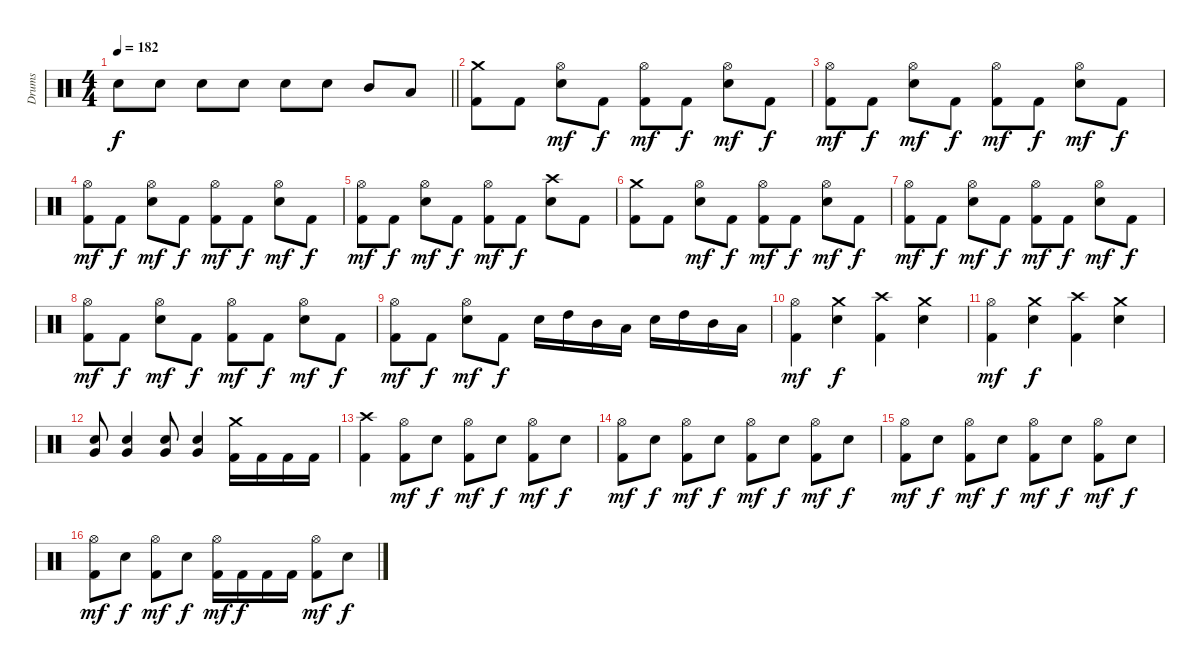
\track ("Drums" "Drums") {instrument percussion}
\staff {score}
\articulation defaults
\ts (4 4)
\tempo 182
\clef neutral
\barLineRight lightlight
\ks c "Electric Snare (hit)".8{dy f} "Electric Snare (hit)".8 "Electric Snare (hit)".8 "Electric Snare (hit)".8 "Electric Snare (hit)".8 "Electric Snare (hit)".8 "Mid Tom (hit)".8 "Low Tom (hit)".8
|
("Crash medium (hit)" "Kick (hit) 2").8{volume 14} "Kick (hit) 2".8 ("Hi-Hat (open)" "Electric Snare (hit)").8{dy mf} "Kick (hit) 2".8{dy f} ("Hi-Hat (open)" "Kick (hit) 2").8{dy mf} "Kick (hit) 2".8{dy f} ("Hi-Hat (open)" "Electric Snare (hit)").8{dy mf} "Kick (hit) 2".8{dy f} |
("Hi-Hat (open)" "Kick (hit) 2").8{dy mf} "Kick (hit) 2".8{dy f} ("Hi-Hat (open)" "Electric Snare (hit)").8{dy mf} "Kick (hit) 2".8{dy f} ("Hi-Hat (open)" "Kick (hit) 2").8{dy mf} "Kick (hit) 2".8{dy f} ("Hi-Hat (open)" "Electric Snare (hit)").8{dy mf} "Kick (hit) 2".8{dy f} |
("Hi-Hat (open)" "Kick (hit) 2").8{dy mf} "Kick (hit) 2".8{dy f} ("Hi-Hat (open)" "Electric Snare (hit)").8{dy mf} "Kick (hit) 2".8{dy f} ("Hi-Hat (open)" "Kick (hit) 2").8{dy mf} "Kick (hit) 2".8{dy f} ("Hi-Hat (open)" "Electric Snare (hit)").8{dy mf} "Kick (hit) 2".8{dy f} |
("Hi-Hat (open)" "Kick (hit) 2").8{dy mf} "Kick (hit) 2".8{dy f} ("Hi-Hat (open)" "Electric Snare (hit)").8{dy mf} "Kick (hit) 2".8{dy f} ("Hi-Hat (open)" "Kick (hit) 2").8{dy mf} "Kick (hit) 2".8{dy f} ("Crash high (hit)" "Electric Snare (hit)").8 "Kick (hit) 2".8 |
("Crash medium (hit)" "Kick (hit) 2").8 "Kick (hit) 2".8 ("Hi-Hat (open)" "Electric Snare (hit)").8{dy mf} "Kick (hit) 2".8{dy f} ("Hi-Hat (open)" "Kick (hit) 2").8{dy mf} "Kick (hit) 2".8{dy f} ("Hi-Hat (open)" "Electric Snare (hit)").8{dy mf} "Kick (hit) 2".8{dy f} |
("Hi-Hat (open)" "Kick (hit) 2").8{dy mf} "Kick (hit) 2".8{dy f} ("Hi-Hat (open)" "Electric Snare (hit)").8{dy mf} "Kick (hit) 2".8{dy f} ("Hi-Hat (open)" "Kick (hit) 2").8{dy mf} "Kick (hit) 2".8{dy f} ("Hi-Hat (open)" "Electric Snare (hit)").8{dy mf} "Kick (hit) 2".8{dy f} |
("Hi-Hat (open)" "Kick (hit) 2").8{dy mf} "Kick (hit) 2".8{dy f} ("Hi-Hat (open)" "Electric Snare (hit)").8{dy mf} "Kick (hit) 2".8{dy f} ("Hi-Hat (open)" "Kick (hit) 2").8{dy mf} "Kick (hit) 2".8{dy f} ("Hi-Hat (open)" "Electric Snare (hit)").8{dy mf} "Kick (hit) 2".8{dy f} |
("Hi-Hat (open)" "Kick (hit) 2").8{dy mf} "Kick (hit) 2".8{dy f} ("Hi-Hat (open)" "Electric Snare (hit)").8{dy mf} "Kick (hit) 2".8{dy f} "Electric Snare (hit)".16 "High Tom (hit)".16 "Mid Tom (hit)".16 "Low Tom (hit)".16 "Electric Snare (hit)".16 "High Tom (hit)".16 "Mid Tom (hit)".16 "Low Tom (hit)".16 |
("Hi-Hat (open)" "Kick (hit) 2").4{dy mf} ("Crash medium (hit)" "Electric Snare (hit)").4{dy f} ("Crash high (hit)" "Kick (hit) 2").4 ("Crash medium (hit)" "Electric Snare (hit)").4 |
("Hi-Hat (open)" "Kick (hit) 2").4{dy mf} ("Crash medium (hit)" "Electric Snare (hit)").4{dy f} ("Crash high (hit)" "Kick (hit) 2").4 ("Crash medium (hit)" "Electric Snare (hit)").4 |
("Very Low Tom (hit)" "Electric Snare (hit)").8 ("Very Low Tom (hit)" "Electric Snare (hit)").4 ("Very Low Tom (hit)" "Electric Snare (hit)").8 ("Very Low Tom (hit)" "Electric Snare (hit)").4 ("Crash medium (hit)" "Kick (hit) 2").16 "Kick (hit) 2".16 "Kick (hit) 2".16 "Kick (hit) 2".16 |
("Crash high (hit)" "Kick (hit) 2").4 ("Hi-Hat (open)" "Kick (hit) 2").8{dy mf} "Electric Snare (hit)".8{dy f} ("Hi-Hat (open)" "Kick (hit) 2").8{dy mf} "Electric Snare (hit)".8{dy f} ("Hi-Hat (open)" "Kick (hit) 2").8{dy mf} "Electric Snare (hit)".8{dy f} |
("Hi-Hat (open)" "Kick (hit) 2").8{dy mf} "Electric Snare (hit)".8{dy f} ("Hi-Hat (open)" "Kick (hit) 2").8{dy mf} "Electric Snare (hit)".8{dy f} ("Hi-Hat (open)" "Kick (hit) 2").8{dy mf} "Electric Snare (hit)".8{dy f} ("Hi-Hat (open)" "Kick (hit) 2").8{dy mf} "Electric Snare (hit)".8{dy f} |
("Hi-Hat (open)" "Kick (hit) 2").8{dy mf} "Electric Snare (hit)".8{dy f} ("Hi-Hat (open)" "Kick (hit) 2").8{dy mf} "Electric Snare (hit)".8{dy f} ("Hi-Hat (open)" "Kick (hit) 2").8{dy mf} "Electric Snare (hit)".8{dy f} ("Hi-Hat (open)" "Kick (hit) 2").8{dy mf} "Electric Snare (hit)".8{dy f} |
("Hi-Hat (open)" "Kick (hit) 2").8{dy mf} "Electric Snare (hit)".8{dy f} ("Hi-Hat (open)" "Kick (hit) 2").8{dy mf} "Electric Snare (hit)".8{dy f} ("Hi-Hat (open)" "Kick (hit) 2").16{dy mf} "Kick (hit) 2".16{dy f} "Kick (hit) 2".16 "Kick (hit) 2".16 ("Hi-Hat (open)" "Kick (hit) 2").8{dy mf} "Electric Snare (hit)".8{dy f}
